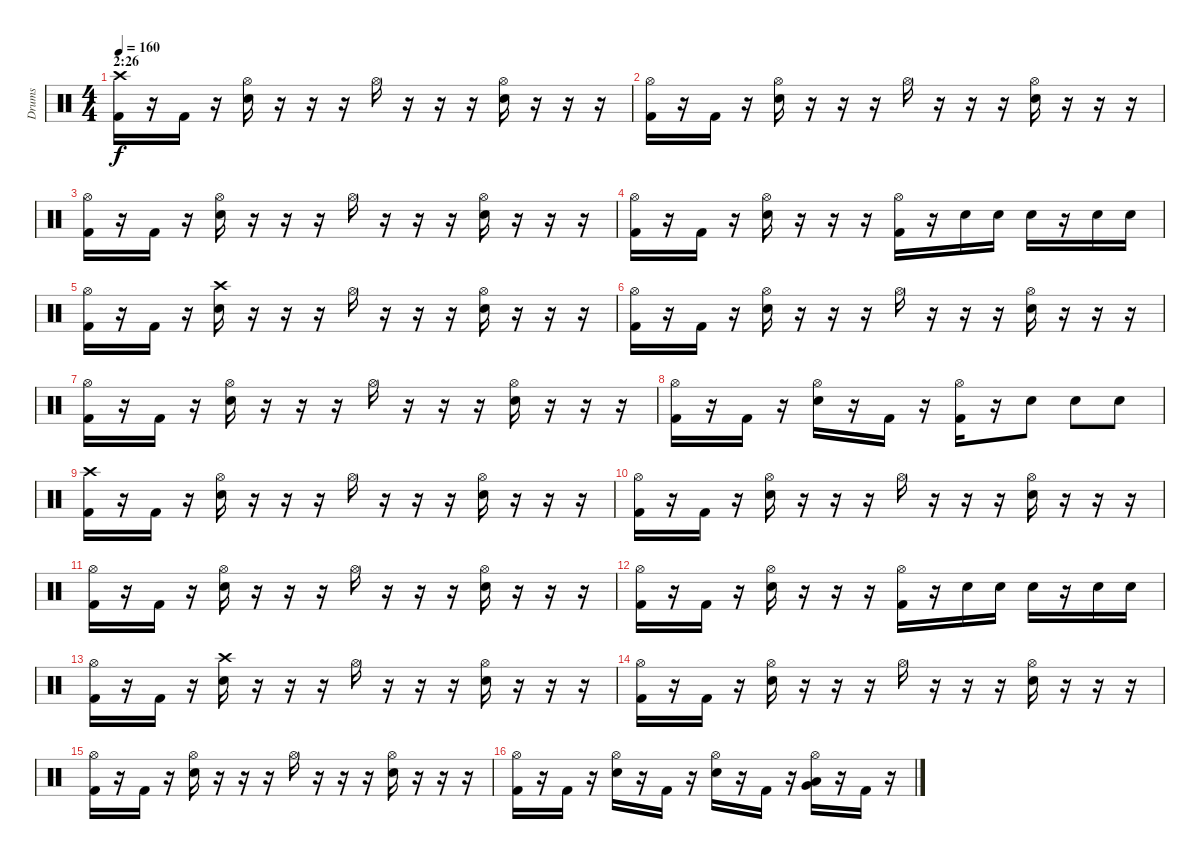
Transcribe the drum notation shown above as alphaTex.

\track ("Drums" "Drums") {instrument percussion}
\staff {score}
\articulation defaults
\ts (4 4)
\section ("" "2:26")
\tempo 160
\clef neutral
\ks c
("Crash high (hit)" "Kick (hit) 2").16{dy f} r.16 "Kick (hit) 2".16 r.16 ("Hi-Hat (open)" "Electric Snare (hit)").16 r.16 r.16 r.16 "Hi-Hat (open)".16 r.16 r.16 r.16 ("Hi-Hat (open)" "Electric Snare (hit)").16 r.16 r.16 r.16 |
("Hi-Hat (open)" "Kick (hit) 2").16 r.16 "Kick (hit) 2".16 r.16 ("Hi-Hat (open)" "Electric Snare (hit)").16 r.16 r.16 r.16 "Hi-Hat (open)".16 r.16 r.16 r.16 ("Hi-Hat (open)" "Electric Snare (hit)").16 r.16 r.16 r.16 |
("Hi-Hat (open)" "Kick (hit) 2").16 r.16 "Kick (hit) 2".16 r.16 ("Hi-Hat (open)" "Electric Snare (hit)").16 r.16 r.16 r.16 "Hi-Hat (open)".16 r.16 r.16 r.16 ("Hi-Hat (open)" "Electric Snare (hit)").16 r.16 r.16 r.16 |
("Hi-Hat (open)" "Kick (hit) 2").16 r.16 "Kick (hit) 2".16 r.16 ("Hi-Hat (open)" "Electric Snare (hit)").16 r.16 r.16 r.16 ("Hi-Hat (open)" "Kick (hit) 2").16 r.16 "Electric Snare (hit)".16 "Electric Snare (hit)".16 "Electric Snare (hit)".16 r.16 "Electric Snare (hit)".16 "Electric Snare (hit)".16 |
("Hi-Hat (open)" "Kick (hit) 2").16 r.16 "Kick (hit) 2".16 r.16 ("Crash high (hit)" "Electric Snare (hit)").16 r.16 r.16 r.16 "Hi-Hat (open)".16 r.16 r.16 r.16 ("Hi-Hat (open)" "Electric Snare (hit)").16 r.16 r.16 r.16 |
("Hi-Hat (open)" "Kick (hit) 2").16 r.16 "Kick (hit) 2".16 r.16 ("Hi-Hat (open)" "Electric Snare (hit)").16 r.16 r.16 r.16 "Hi-Hat (open)".16 r.16 r.16 r.16 ("Hi-Hat (open)" "Electric Snare (hit)").16 r.16 r.16 r.16 |
("Hi-Hat (open)" "Kick (hit) 2").16 r.16 "Kick (hit) 2".16 r.16 ("Hi-Hat (open)" "Electric Snare (hit)").16 r.16 r.16 r.16 "Hi-Hat (open)".16 r.16 r.16 r.16 ("Hi-Hat (open)" "Electric Snare (hit)").16 r.16 r.16 r.16 |
("Hi-Hat (open)" "Kick (hit) 2").16 r.16 "Kick (hit) 2".16 r.16 ("Hi-Hat (open)" "Electric Snare (hit)").16 r.16 "Kick (hit) 2".16 r.16 ("Hi-Hat (open)" "Kick (hit) 2").16 r.16 "Electric Snare (hit)".8 "Electric Snare (hit)".8 "Electric Snare (hit)".8 |
("Crash high (hit)" "Kick (hit) 2").16 r.16 "Kick (hit) 2".16 r.16 ("Hi-Hat (open)" "Electric Snare (hit)").16 r.16 r.16 r.16 "Hi-Hat (open)".16 r.16 r.16 r.16 ("Hi-Hat (open)" "Electric Snare (hit)").16 r.16 r.16 r.16 |
("Hi-Hat (open)" "Kick (hit) 2").16 r.16 "Kick (hit) 2".16 r.16 ("Hi-Hat (open)" "Electric Snare (hit)").16 r.16 r.16 r.16 "Hi-Hat (open)".16 r.16 r.16 r.16 ("Hi-Hat (open)" "Electric Snare (hit)").16 r.16 r.16 r.16 |
("Hi-Hat (open)" "Kick (hit) 2").16 r.16 "Kick (hit) 2".16 r.16 ("Hi-Hat (open)" "Electric Snare (hit)").16 r.16 r.16 r.16 "Hi-Hat (open)".16 r.16 r.16 r.16 ("Hi-Hat (open)" "Electric Snare (hit)").16 r.16 r.16 r.16 |
("Hi-Hat (open)" "Kick (hit) 2").16 r.16 "Kick (hit) 2".16 r.16 ("Hi-Hat (open)" "Electric Snare (hit)").16 r.16 r.16 r.16 ("Hi-Hat (open)" "Kick (hit) 2").16 r.16 "Electric Snare (hit)".16 "Electric Snare (hit)".16 "Electric Snare (hit)".16 r.16 "Electric Snare (hit)".16 "Electric Snare (hit)".16 |
("Hi-Hat (open)" "Kick (hit) 2").16 r.16 "Kick (hit) 2".16 r.16 ("Crash high (hit)" "Electric Snare (hit)").16 r.16 r.16 r.16 "Hi-Hat (open)".16 r.16 r.16 r.16 ("Hi-Hat (open)" "Electric Snare (hit)").16 r.16 r.16 r.16 |
("Hi-Hat (open)" "Kick (hit) 2").16 r.16 "Kick (hit) 2".16 r.16 ("Hi-Hat (open)" "Electric Snare (hit)").16 r.16 r.16 r.16 "Hi-Hat (open)".16 r.16 r.16 r.16 ("Hi-Hat (open)" "Electric Snare (hit)").16 r.16 r.16 r.16 |
("Hi-Hat (open)" "Kick (hit) 2").16 r.16 "Kick (hit) 2".16 r.16 ("Hi-Hat (open)" "Electric Snare (hit)").16 r.16 r.16 r.16 "Hi-Hat (open)".16 r.16 r.16 r.16 ("Hi-Hat (open)" "Electric Snare (hit)").16 r.16 r.16 r.16 |
("Hi-Hat (open)" "Kick (hit) 2").16 r.16 "Kick (hit) 2".16 r.16 ("Hi-Hat (open)" "Electric Snare (hit)").16 r.16 "Kick (hit) 2".16 r.16 ("Hi-Hat (open)" "Electric Snare (hit)").16 r.16 "Kick (hit) 2".16 r.16 ("Hi-Hat (open)" "Very Low Tom (hit)" "Low Floor Tom (hit)").16 r.16 "Kick (hit) 2".16 r.16
